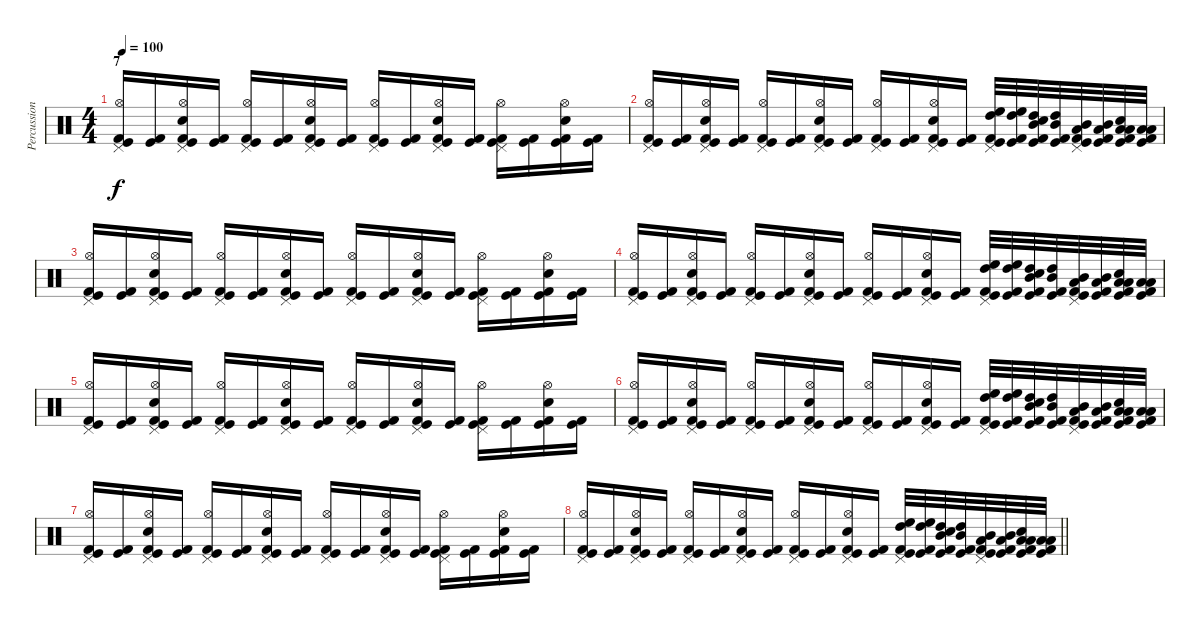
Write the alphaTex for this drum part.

\track ("Percussion" "Percussion") {instrument percussion}
\staff {score}
\articulation defaults
\ts (4 4)
\section ("" "7")
\tempo 100
\clef neutral
\ks c
("Pedal Hi-Hat (hit)" "Hi-Hat (open)" "Kick (hit) 2" "Kick (hit)").16{dy f} ("Kick (hit) 2" "Kick (hit)").16 ("Pedal Hi-Hat (hit)" "Electric Snare (hit)" "Hi-Hat (open)" "Kick (hit) 2" "Kick (hit)").16 ("Kick (hit) 2" "Kick (hit)").16 ("Pedal Hi-Hat (hit)" "Hi-Hat (open)" "Kick (hit) 2" "Kick (hit)").16 ("Kick (hit) 2" "Kick (hit)").16 ("Pedal Hi-Hat (hit)" "Electric Snare (hit)" "Hi-Hat (open)" "Kick (hit) 2" "Kick (hit)").16 ("Kick (hit) 2" "Kick (hit)").16 ("Pedal Hi-Hat (hit)" "Hi-Hat (open)" "Kick (hit) 2" "Kick (hit)").16 ("Kick (hit) 2" "Kick (hit)").16 ("Pedal Hi-Hat (hit)" "Electric Snare (hit)" "Hi-Hat (open)" "Kick (hit) 2" "Kick (hit)").16 ("Kick (hit) 2" "Kick (hit)").16 ("Pedal Hi-Hat (hit)" "Hi-Hat (open)" "Kick (hit) 2" "Kick (hit)").16 ("Kick (hit) 2" "Kick (hit)").16 ("Hi-Hat (open)" "Electric Snare (hit)" "Kick (hit) 2" "Kick (hit)").16 ("Kick (hit) 2" "Kick (hit)").16 |
("Pedal Hi-Hat (hit)" "Hi-Hat (open)" "Kick (hit) 2" "Kick (hit)").16 ("Kick (hit) 2" "Kick (hit)").16 ("Pedal Hi-Hat (hit)" "Electric Snare (hit)" "Hi-Hat (open)" "Kick (hit) 2" "Kick (hit)").16 ("Kick (hit) 2" "Kick (hit)").16 ("Pedal Hi-Hat (hit)" "Hi-Hat (open)" "Kick (hit) 2" "Kick (hit)").16 ("Kick (hit) 2" "Kick (hit)").16 ("Pedal Hi-Hat (hit)" "Electric Snare (hit)" "Hi-Hat (open)" "Kick (hit) 2" "Kick (hit)").16 ("Kick (hit) 2" "Kick (hit)").16 ("Pedal Hi-Hat (hit)" "Hi-Hat (open)" "Kick (hit) 2" "Kick (hit)").16 ("Kick (hit) 2" "Kick (hit)").16 ("Pedal Hi-Hat (hit)" "Electric Snare (hit)" "Hi-Hat (open)" "Kick (hit) 2" "Kick (hit)").16 ("Kick (hit) 2" "Kick (hit)").16 ("Pedal Hi-Hat (hit)" "High Floor Tom (hit)" "High Tom (hit)" "Kick (hit) 2" "Kick (hit)").32 ("High Floor Tom (hit)" "High Tom (hit)" "Kick (hit) 2" "Kick (hit)").32 ("High Tom (hit)" "Mid Tom (hit)" "Electric Snare (hit)" "Kick (hit) 2" "Kick (hit)").32 ("High Tom (hit)" "Mid Tom (hit)" "Kick (hit) 2" "Kick (hit)").32 ("Pedal Hi-Hat (hit)" "Mid Tom (hit)" "Low Tom (hit)" "Kick (hit) 2" "Kick (hit)").32 ("Mid Tom (hit)" "Low Tom (hit)" "Kick (hit) 2" "Kick (hit)").32 ("Low Tom (hit)" "Low Floor Tom (hit)" "Electric Snare (hit)" "Kick (hit) 2" "Kick (hit)").32 ("Low Tom (hit)" "Low Floor Tom (hit)" "Kick (hit) 2" "Kick (hit)").32 |
("Pedal Hi-Hat (hit)" "Hi-Hat (open)" "Kick (hit) 2" "Kick (hit)").16 ("Kick (hit) 2" "Kick (hit)").16 ("Pedal Hi-Hat (hit)" "Electric Snare (hit)" "Hi-Hat (open)" "Kick (hit) 2" "Kick (hit)").16 ("Kick (hit) 2" "Kick (hit)").16 ("Pedal Hi-Hat (hit)" "Hi-Hat (open)" "Kick (hit) 2" "Kick (hit)").16 ("Kick (hit) 2" "Kick (hit)").16 ("Pedal Hi-Hat (hit)" "Electric Snare (hit)" "Hi-Hat (open)" "Kick (hit) 2" "Kick (hit)").16 ("Kick (hit) 2" "Kick (hit)").16 ("Pedal Hi-Hat (hit)" "Hi-Hat (open)" "Kick (hit) 2" "Kick (hit)").16 ("Kick (hit) 2" "Kick (hit)").16 ("Pedal Hi-Hat (hit)" "Electric Snare (hit)" "Hi-Hat (open)" "Kick (hit) 2" "Kick (hit)").16 ("Kick (hit) 2" "Kick (hit)").16 ("Pedal Hi-Hat (hit)" "Hi-Hat (open)" "Kick (hit) 2" "Kick (hit)").16 ("Kick (hit) 2" "Kick (hit)").16 ("Hi-Hat (open)" "Electric Snare (hit)" "Kick (hit) 2" "Kick (hit)").16 ("Kick (hit) 2" "Kick (hit)").16 |
("Pedal Hi-Hat (hit)" "Hi-Hat (open)" "Kick (hit) 2" "Kick (hit)").16 ("Kick (hit) 2" "Kick (hit)").16 ("Pedal Hi-Hat (hit)" "Electric Snare (hit)" "Hi-Hat (open)" "Kick (hit) 2" "Kick (hit)").16 ("Kick (hit) 2" "Kick (hit)").16 ("Pedal Hi-Hat (hit)" "Hi-Hat (open)" "Kick (hit) 2" "Kick (hit)").16 ("Kick (hit) 2" "Kick (hit)").16 ("Pedal Hi-Hat (hit)" "Electric Snare (hit)" "Hi-Hat (open)" "Kick (hit) 2" "Kick (hit)").16 ("Kick (hit) 2" "Kick (hit)").16 ("Pedal Hi-Hat (hit)" "Hi-Hat (open)" "Kick (hit) 2" "Kick (hit)").16 ("Kick (hit) 2" "Kick (hit)").16 ("Pedal Hi-Hat (hit)" "Electric Snare (hit)" "Hi-Hat (open)" "Kick (hit) 2" "Kick (hit)").16 ("Kick (hit) 2" "Kick (hit)").16 ("Pedal Hi-Hat (hit)" "High Floor Tom (hit)" "High Tom (hit)" "Kick (hit) 2" "Kick (hit)").32 ("High Floor Tom (hit)" "High Tom (hit)" "Kick (hit) 2" "Kick (hit)").32 ("High Tom (hit)" "Mid Tom (hit)" "Electric Snare (hit)" "Kick (hit) 2" "Kick (hit)").32 ("High Tom (hit)" "Mid Tom (hit)" "Kick (hit) 2" "Kick (hit)").32 ("Pedal Hi-Hat (hit)" "Mid Tom (hit)" "Low Tom (hit)" "Kick (hit) 2" "Kick (hit)").32 ("Mid Tom (hit)" "Low Tom (hit)" "Kick (hit) 2" "Kick (hit)").32 ("Low Tom (hit)" "Low Floor Tom (hit)" "Electric Snare (hit)" "Kick (hit) 2" "Kick (hit)").32 ("Low Tom (hit)" "Low Floor Tom (hit)" "Kick (hit) 2" "Kick (hit)").32 |
("Pedal Hi-Hat (hit)" "Hi-Hat (open)" "Kick (hit) 2" "Kick (hit)").16 ("Kick (hit) 2" "Kick (hit)").16 ("Pedal Hi-Hat (hit)" "Electric Snare (hit)" "Hi-Hat (open)" "Kick (hit) 2" "Kick (hit)").16 ("Kick (hit) 2" "Kick (hit)").16 ("Pedal Hi-Hat (hit)" "Hi-Hat (open)" "Kick (hit) 2" "Kick (hit)").16 ("Kick (hit) 2" "Kick (hit)").16 ("Pedal Hi-Hat (hit)" "Electric Snare (hit)" "Hi-Hat (open)" "Kick (hit) 2" "Kick (hit)").16 ("Kick (hit) 2" "Kick (hit)").16 ("Pedal Hi-Hat (hit)" "Hi-Hat (open)" "Kick (hit) 2" "Kick (hit)").16 ("Kick (hit) 2" "Kick (hit)").16 ("Pedal Hi-Hat (hit)" "Electric Snare (hit)" "Hi-Hat (open)" "Kick (hit) 2" "Kick (hit)").16 ("Kick (hit) 2" "Kick (hit)").16 ("Pedal Hi-Hat (hit)" "Hi-Hat (open)" "Kick (hit) 2" "Kick (hit)").16 ("Kick (hit) 2" "Kick (hit)").16 ("Hi-Hat (open)" "Electric Snare (hit)" "Kick (hit) 2" "Kick (hit)").16 ("Kick (hit) 2" "Kick (hit)").16 |
("Pedal Hi-Hat (hit)" "Hi-Hat (open)" "Kick (hit) 2" "Kick (hit)").16 ("Kick (hit) 2" "Kick (hit)").16 ("Pedal Hi-Hat (hit)" "Electric Snare (hit)" "Hi-Hat (open)" "Kick (hit) 2" "Kick (hit)").16 ("Kick (hit) 2" "Kick (hit)").16 ("Pedal Hi-Hat (hit)" "Hi-Hat (open)" "Kick (hit) 2" "Kick (hit)").16 ("Kick (hit) 2" "Kick (hit)").16 ("Pedal Hi-Hat (hit)" "Electric Snare (hit)" "Hi-Hat (open)" "Kick (hit) 2" "Kick (hit)").16 ("Kick (hit) 2" "Kick (hit)").16 ("Pedal Hi-Hat (hit)" "Hi-Hat (open)" "Kick (hit) 2" "Kick (hit)").16 ("Kick (hit) 2" "Kick (hit)").16 ("Pedal Hi-Hat (hit)" "Electric Snare (hit)" "Hi-Hat (open)" "Kick (hit) 2" "Kick (hit)").16 ("Kick (hit) 2" "Kick (hit)").16 ("Pedal Hi-Hat (hit)" "High Floor Tom (hit)" "High Tom (hit)" "Kick (hit) 2" "Kick (hit)").32 ("High Floor Tom (hit)" "High Tom (hit)" "Kick (hit) 2" "Kick (hit)").32 ("High Tom (hit)" "Mid Tom (hit)" "Electric Snare (hit)" "Kick (hit) 2" "Kick (hit)").32 ("High Tom (hit)" "Mid Tom (hit)" "Kick (hit) 2" "Kick (hit)").32 ("Pedal Hi-Hat (hit)" "Mid Tom (hit)" "Low Tom (hit)" "Kick (hit) 2" "Kick (hit)").32 ("Mid Tom (hit)" "Low Tom (hit)" "Kick (hit) 2" "Kick (hit)").32 ("Low Tom (hit)" "Low Floor Tom (hit)" "Electric Snare (hit)" "Kick (hit) 2" "Kick (hit)").32 ("Low Tom (hit)" "Low Floor Tom (hit)" "Kick (hit) 2" "Kick (hit)").32 |
("Pedal Hi-Hat (hit)" "Hi-Hat (open)" "Kick (hit) 2" "Kick (hit)").16 ("Kick (hit) 2" "Kick (hit)").16 ("Pedal Hi-Hat (hit)" "Electric Snare (hit)" "Hi-Hat (open)" "Kick (hit) 2" "Kick (hit)").16 ("Kick (hit) 2" "Kick (hit)").16 ("Pedal Hi-Hat (hit)" "Hi-Hat (open)" "Kick (hit) 2" "Kick (hit)").16 ("Kick (hit) 2" "Kick (hit)").16 ("Pedal Hi-Hat (hit)" "Electric Snare (hit)" "Hi-Hat (open)" "Kick (hit) 2" "Kick (hit)").16 ("Kick (hit) 2" "Kick (hit)").16 ("Pedal Hi-Hat (hit)" "Hi-Hat (open)" "Kick (hit) 2" "Kick (hit)").16 ("Kick (hit) 2" "Kick (hit)").16 ("Pedal Hi-Hat (hit)" "Electric Snare (hit)" "Hi-Hat (open)" "Kick (hit) 2" "Kick (hit)").16 ("Kick (hit) 2" "Kick (hit)").16 ("Pedal Hi-Hat (hit)" "Hi-Hat (open)" "Kick (hit) 2" "Kick (hit)").16 ("Kick (hit) 2" "Kick (hit)").16 ("Hi-Hat (open)" "Electric Snare (hit)" "Kick (hit) 2" "Kick (hit)").16 ("Kick (hit) 2" "Kick (hit)").16 |
\barLineRight lightlight
("Pedal Hi-Hat (hit)" "Hi-Hat (open)" "Kick (hit) 2" "Kick (hit)").16 ("Kick (hit) 2" "Kick (hit)").16 ("Pedal Hi-Hat (hit)" "Electric Snare (hit)" "Hi-Hat (open)" "Kick (hit) 2" "Kick (hit)").16 ("Kick (hit) 2" "Kick (hit)").16 ("Pedal Hi-Hat (hit)" "Hi-Hat (open)" "Kick (hit) 2" "Kick (hit)").16 ("Kick (hit) 2" "Kick (hit)").16 ("Pedal Hi-Hat (hit)" "Electric Snare (hit)" "Hi-Hat (open)" "Kick (hit) 2" "Kick (hit)").16 ("Kick (hit) 2" "Kick (hit)").16 ("Pedal Hi-Hat (hit)" "Hi-Hat (open)" "Kick (hit) 2" "Kick (hit)").16 ("Kick (hit) 2" "Kick (hit)").16 ("Pedal Hi-Hat (hit)" "Electric Snare (hit)" "Hi-Hat (open)" "Kick (hit) 2" "Kick (hit)").16 ("Kick (hit) 2" "Kick (hit)").16 ("Pedal Hi-Hat (hit)" "High Floor Tom (hit)" "High Tom (hit)" "Kick (hit) 2" "Kick (hit)").32 ("High Floor Tom (hit)" "High Tom (hit)" "Kick (hit) 2" "Kick (hit)").32 ("High Tom (hit)" "Mid Tom (hit)" "Electric Snare (hit)" "Kick (hit) 2" "Kick (hit)").32 ("High Tom (hit)" "Mid Tom (hit)" "Kick (hit) 2" "Kick (hit)").32 ("Pedal Hi-Hat (hit)" "Mid Tom (hit)" "Low Tom (hit)" "Kick (hit) 2" "Kick (hit)").32 ("Mid Tom (hit)" "Low Tom (hit)" "Kick (hit) 2" "Kick (hit)").32 ("Low Tom (hit)" "Low Floor Tom (hit)" "Electric Snare (hit)" "Kick (hit) 2" "Kick (hit)").32 ("Low Tom (hit)" "Low Floor Tom (hit)" "Kick (hit) 2" "Kick (hit)").32
